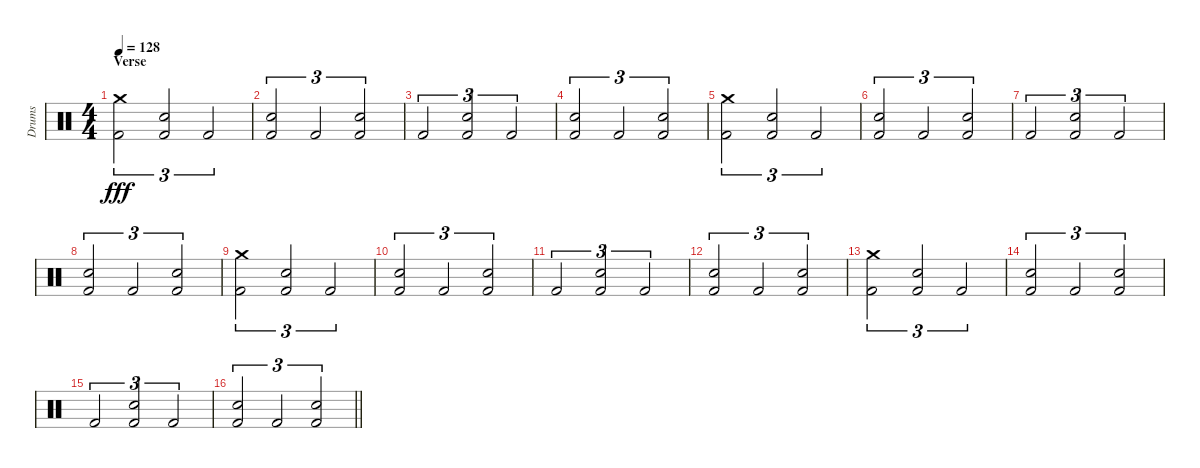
\track ("Drums" "Drums") {instrument percussion}
\staff {score}
\articulation defaults
\ts (4 4)
\section ("" "Verse")
\tempo 128
\clef neutral
\ks c
("Crash medium (hit)" "Kick (hit) 2").2{tu (3 2) dy fff} ("Snare (hit) 2" "Kick (hit) 2").2{tu (3 2)} "Kick (hit) 2".2{tu (3 2)} |
("Snare (hit) 2" "Kick (hit) 2").2{tu (3 2)} "Kick (hit) 2".2{tu (3 2)} ("Snare (hit) 2" "Kick (hit) 2").2{tu (3 2)} |
"Kick (hit) 2".2{tu (3 2)} ("Snare (hit) 2" "Kick (hit) 2").2{tu (3 2)} "Kick (hit) 2".2{tu (3 2)} |
("Snare (hit) 2" "Kick (hit) 2").2{tu (3 2)} "Kick (hit) 2".2{tu (3 2)} ("Snare (hit) 2" "Kick (hit) 2").2{tu (3 2)} |
("Crash medium (hit)" "Kick (hit) 2").2{tu (3 2)} ("Snare (hit) 2" "Kick (hit) 2").2{tu (3 2)} "Kick (hit) 2".2{tu (3 2)} |
("Snare (hit) 2" "Kick (hit) 2").2{tu (3 2)} "Kick (hit) 2".2{tu (3 2)} ("Snare (hit) 2" "Kick (hit) 2").2{tu (3 2)} |
"Kick (hit) 2".2{tu (3 2)} ("Snare (hit) 2" "Kick (hit) 2").2{tu (3 2)} "Kick (hit) 2".2{tu (3 2)} |
("Snare (hit) 2" "Kick (hit) 2").2{tu (3 2)} "Kick (hit) 2".2{tu (3 2)} ("Snare (hit) 2" "Kick (hit) 2").2{tu (3 2)} |
("Crash medium (hit)" "Kick (hit) 2").2{tu (3 2)} ("Snare (hit) 2" "Kick (hit) 2").2{tu (3 2)} "Kick (hit) 2".2{tu (3 2)} |
("Snare (hit) 2" "Kick (hit) 2").2{tu (3 2)} "Kick (hit) 2".2{tu (3 2)} ("Snare (hit) 2" "Kick (hit) 2").2{tu (3 2)} |
"Kick (hit) 2".2{tu (3 2)} ("Snare (hit) 2" "Kick (hit) 2").2{tu (3 2)} "Kick (hit) 2".2{tu (3 2)} |
("Snare (hit) 2" "Kick (hit) 2").2{tu (3 2)} "Kick (hit) 2".2{tu (3 2)} ("Snare (hit) 2" "Kick (hit) 2").2{tu (3 2)} |
("Crash medium (hit)" "Kick (hit) 2").2{tu (3 2)} ("Snare (hit) 2" "Kick (hit) 2").2{tu (3 2)} "Kick (hit) 2".2{tu (3 2)} |
("Snare (hit) 2" "Kick (hit) 2").2{tu (3 2)} "Kick (hit) 2".2{tu (3 2)} ("Snare (hit) 2" "Kick (hit) 2").2{tu (3 2)} |
"Kick (hit) 2".2{tu (3 2)} ("Snare (hit) 2" "Kick (hit) 2").2{tu (3 2)} "Kick (hit) 2".2{tu (3 2)} |
\barLineRight lightlight
("Snare (hit) 2" "Kick (hit) 2").2{tu (3 2)} "Kick (hit) 2".2{tu (3 2)} ("Snare (hit) 2" "Kick (hit) 2").2{tu (3 2)}
